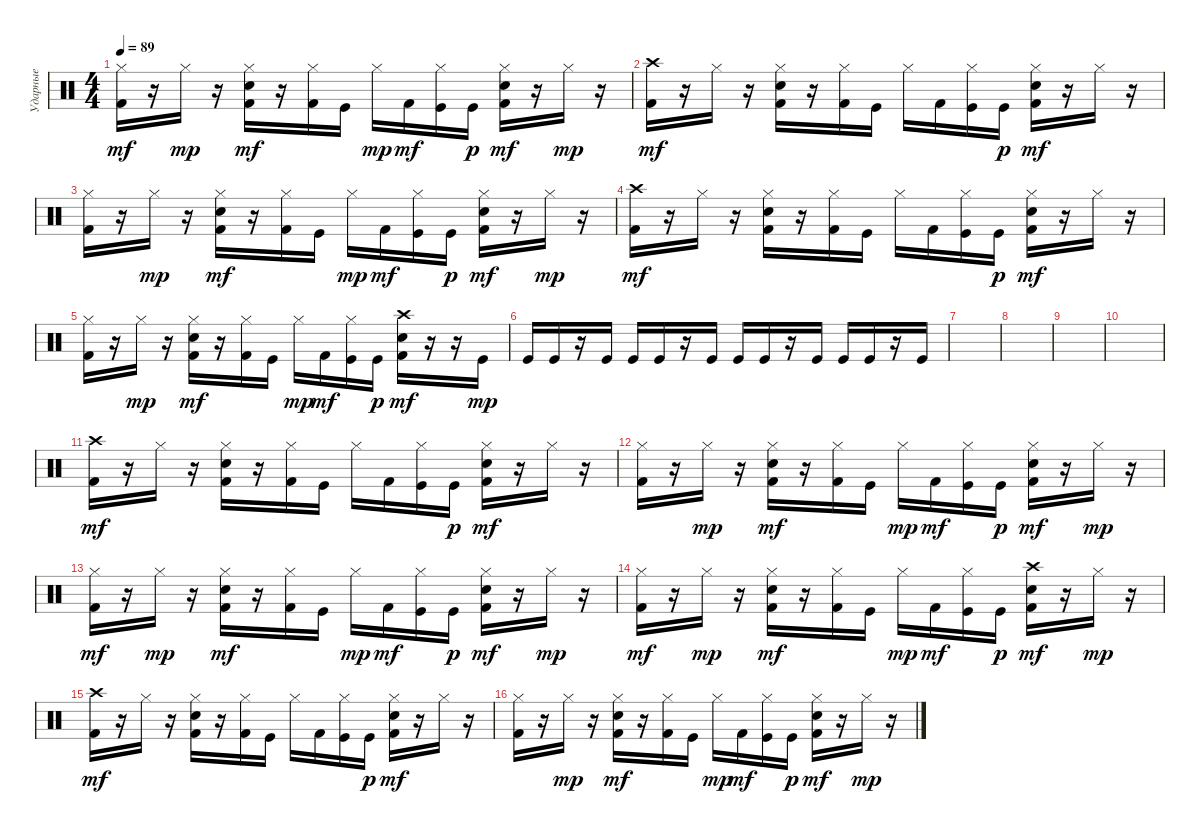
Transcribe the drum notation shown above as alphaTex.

\track ("Ударные" "Ударные") {instrument percussion}
\staff {score}
\articulation defaults
\ts (4 4)
\tempo 89
\clef neutral
\ks c
("Hi-Hat (closed)" "Kick (hit) 2").16{dy mf} r.16 "Hi-Hat (closed)".16{dy mp} r.16 ("Hi-Hat (closed)" "Snare (hit) 2" "Kick (hit) 2").16{dy mf} r.16 ("Hi-Hat (closed)" "Kick (hit) 2").16 "Kick (hit)".16 "Hi-Hat (closed)".16{dy mp} "Kick (hit) 2".16{dy mf} ("Hi-Hat (closed)" "Kick (hit)").16 "Kick (hit)".16{dy p} ("Hi-Hat (closed)" "Snare (hit) 2" "Kick (hit) 2").16{dy mf} r.16 "Hi-Hat (closed)".16{dy mp} r.16 |
("Crash high (hit)" "Kick (hit) 2").16{dy mf} r.16 "Hi-Hat (closed)".16 r.16 ("Hi-Hat (closed)" "Snare (hit) 2" "Kick (hit) 2").16 r.16 ("Hi-Hat (closed)" "Kick (hit) 2").16 "Kick (hit)".16 "Hi-Hat (closed)".16 "Kick (hit) 2".16 ("Hi-Hat (closed)" "Kick (hit)").16 "Kick (hit)".16{dy p} ("Hi-Hat (closed)" "Snare (hit) 2" "Kick (hit) 2").16{dy mf} r.16 "Hi-Hat (closed)".16 r.16 |
("Hi-Hat (closed)" "Kick (hit) 2").16 r.16 "Hi-Hat (closed)".16{dy mp} r.16 ("Hi-Hat (closed)" "Snare (hit) 2" "Kick (hit) 2").16{dy mf} r.16 ("Hi-Hat (closed)" "Kick (hit) 2").16 "Kick (hit)".16 "Hi-Hat (closed)".16{dy mp} "Kick (hit) 2".16{dy mf} ("Hi-Hat (closed)" "Kick (hit)").16 "Kick (hit)".16{dy p} ("Hi-Hat (closed)" "Snare (hit) 2" "Kick (hit) 2").16{dy mf} r.16 "Hi-Hat (closed)".16{dy mp} r.16 |
("Crash high (hit)" "Kick (hit) 2").16{dy mf} r.16 "Hi-Hat (closed)".16 r.16 ("Hi-Hat (closed)" "Snare (hit) 2" "Kick (hit) 2").16 r.16 ("Hi-Hat (closed)" "Kick (hit) 2").16 "Kick (hit)".16 "Hi-Hat (closed)".16 "Kick (hit) 2".16 ("Hi-Hat (closed)" "Kick (hit)").16 "Kick (hit)".16{dy p} ("Hi-Hat (closed)" "Snare (hit) 2" "Kick (hit) 2").16{dy mf} r.16 "Hi-Hat (closed)".16 r.16 |
("Hi-Hat (closed)" "Kick (hit) 2").16 r.16 "Hi-Hat (closed)".16{dy mp} r.16 ("Hi-Hat (closed)" "Snare (hit) 2" "Kick (hit) 2").16{dy mf} r.16 ("Hi-Hat (closed)" "Kick (hit) 2").16 "Kick (hit)".16 "Hi-Hat (closed)".16{dy mp} "Kick (hit) 2".16{dy mf} ("Hi-Hat (closed)" "Kick (hit)").16 "Kick (hit)".16{dy p} ("Crash high (hit)" "Snare (hit) 2" "Kick (hit) 2").16{dy mf} r.16 r.16 "Kick (hit)".16{dy mp} |
"Kick (hit)".16 "Kick (hit)".16 r.16 "Kick (hit)".16 "Kick (hit)".16 "Kick (hit)".16 r.16 "Kick (hit)".16 "Kick (hit)".16 "Kick (hit)".16 r.16 "Kick (hit)".16 "Kick (hit)".16 "Kick (hit)".16 r.16 "Kick (hit)".16 |
|
|
|
|
("Crash high (hit)" "Kick (hit) 2").16{dy mf} r.16 "Hi-Hat (closed)".16 r.16 ("Hi-Hat (closed)" "Snare (hit) 2" "Kick (hit) 2").16 r.16 ("Hi-Hat (closed)" "Kick (hit) 2").16 "Kick (hit)".16 "Hi-Hat (closed)".16 "Kick (hit) 2".16 ("Hi-Hat (closed)" "Kick (hit)").16 "Kick (hit)".16{dy p} ("Hi-Hat (closed)" "Snare (hit) 2" "Kick (hit) 2").16{dy mf} r.16 "Hi-Hat (closed)".16 r.16 |
("Hi-Hat (closed)" "Kick (hit) 2").16 r.16 "Hi-Hat (closed)".16{dy mp} r.16 ("Hi-Hat (closed)" "Snare (hit) 2" "Kick (hit) 2").16{dy mf} r.16 ("Hi-Hat (closed)" "Kick (hit) 2").16 "Kick (hit)".16 "Hi-Hat (closed)".16{dy mp} "Kick (hit) 2".16{dy mf} ("Hi-Hat (closed)" "Kick (hit)").16 "Kick (hit)".16{dy p} ("Hi-Hat (closed)" "Snare (hit) 2" "Kick (hit) 2").16{dy mf} r.16 "Hi-Hat (closed)".16{dy mp} r.16 |
("Hi-Hat (closed)" "Kick (hit) 2").16{dy mf} r.16 "Hi-Hat (closed)".16{dy mp} r.16 ("Hi-Hat (closed)" "Snare (hit) 2" "Kick (hit) 2").16{dy mf} r.16 ("Hi-Hat (closed)" "Kick (hit) 2").16 "Kick (hit)".16 "Hi-Hat (closed)".16{dy mp} "Kick (hit) 2".16{dy mf} ("Hi-Hat (closed)" "Kick (hit)").16 "Kick (hit)".16{dy p} ("Hi-Hat (closed)" "Snare (hit) 2" "Kick (hit) 2").16{dy mf} r.16 "Hi-Hat (closed)".16{dy mp} r.16 |
("Hi-Hat (closed)" "Kick (hit) 2").16{dy mf} r.16 "Hi-Hat (closed)".16{dy mp} r.16 ("Hi-Hat (closed)" "Snare (hit) 2" "Kick (hit) 2").16{dy mf} r.16 ("Hi-Hat (closed)" "Kick (hit) 2").16 "Kick (hit)".16 "Hi-Hat (closed)".16{dy mp} "Kick (hit) 2".16{dy mf} ("Hi-Hat (closed)" "Kick (hit)").16 "Kick (hit)".16{dy p} ("Crash high (hit)" "Snare (hit) 2" "Kick (hit) 2").16{dy mf} r.16 "Hi-Hat (closed)".16{dy mp} r.16 |
("Crash high (hit)" "Kick (hit) 2").16{dy mf} r.16 "Hi-Hat (closed)".16 r.16 ("Hi-Hat (closed)" "Snare (hit) 2" "Kick (hit) 2").16 r.16 ("Hi-Hat (closed)" "Kick (hit) 2").16 "Kick (hit)".16 "Hi-Hat (closed)".16 "Kick (hit) 2".16 ("Hi-Hat (closed)" "Kick (hit)").16 "Kick (hit)".16{dy p} ("Hi-Hat (closed)" "Snare (hit) 2" "Kick (hit) 2").16{dy mf} r.16 "Hi-Hat (closed)".16 r.16 |
("Hi-Hat (closed)" "Kick (hit) 2").16 r.16 "Hi-Hat (closed)".16{dy mp} r.16 ("Hi-Hat (closed)" "Snare (hit) 2" "Kick (hit) 2").16{dy mf} r.16 ("Hi-Hat (closed)" "Kick (hit) 2").16 "Kick (hit)".16 "Hi-Hat (closed)".16{dy mp} "Kick (hit) 2".16{dy mf} ("Hi-Hat (closed)" "Kick (hit)").16 "Kick (hit)".16{dy p} ("Hi-Hat (closed)" "Snare (hit) 2" "Kick (hit) 2").16{dy mf} r.16 "Hi-Hat (closed)".16{dy mp} r.16
